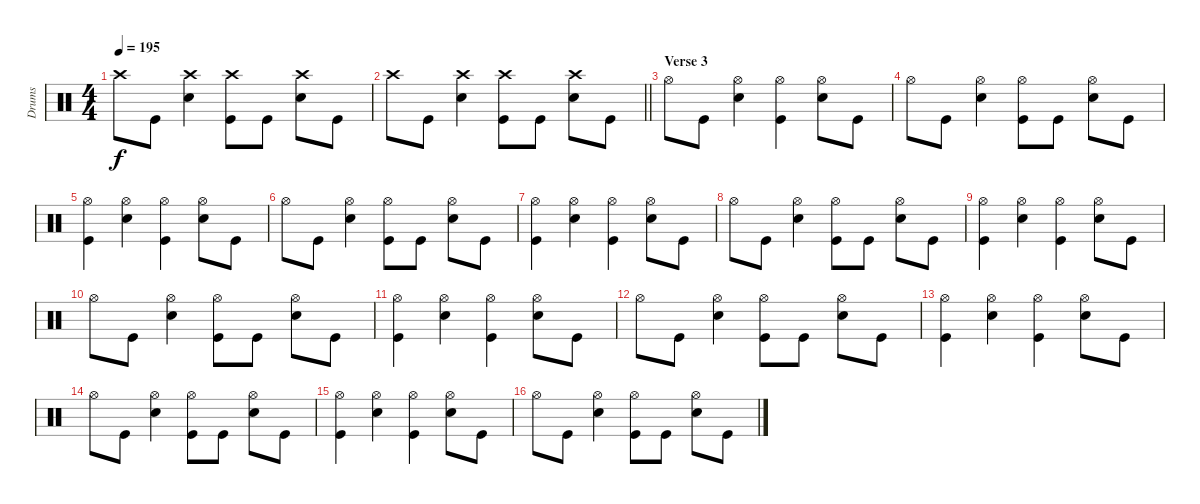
\track ("Drums" "Drums") {instrument percussion}
\staff {score}
\articulation defaults
\ts (4 4)
\tempo 195
\clef neutral
\ks c "Crash high (hit)".8{dy f} "Kick (hit)".8
("Snare (hit) 2" "Crash high (hit)").4 ("Kick (hit)" "Crash high (hit)").8 "Kick (hit)".8 ("Snare (hit) 2" "Crash high (hit)").8 "Kick (hit)".8 |
\barLineRight lightlight "Crash high (hit)".8 "Kick (hit)".8
("Snare (hit) 2" "Crash high (hit)").4 ("Kick (hit)" "Crash high (hit)").8 "Kick (hit)".8 ("Snare (hit) 2" "Crash high (hit)").8 "Kick (hit)".8 |
\section ("" "Verse 3")
"Hi-Hat (open)".8 "Kick (hit)".8 ("Snare (hit) 2" "Hi-Hat (open)").4 ("Kick (hit)" "Hi-Hat (open)").4 ("Snare (hit) 2" "Hi-Hat (open)").8 "Kick (hit)".8 |
"Hi-Hat (open)".8 "Kick (hit)".8 ("Snare (hit) 2" "Hi-Hat (open)").4 ("Kick (hit)" "Hi-Hat (open)").8 "Kick (hit)".8 ("Snare (hit) 2" "Hi-Hat (open)").8 "Kick (hit)".8 |
("Kick (hit)" "Hi-Hat (open)").4 ("Snare (hit) 2" "Hi-Hat (open)").4 ("Kick (hit)" "Hi-Hat (open)").4 ("Snare (hit) 2" "Hi-Hat (open)").8 "Kick (hit)".8 |
"Hi-Hat (open)".8 "Kick (hit)".8 ("Snare (hit) 2" "Hi-Hat (open)").4 ("Kick (hit)" "Hi-Hat (open)").8 "Kick (hit)".8 ("Snare (hit) 2" "Hi-Hat (open)").8 "Kick (hit)".8 |
("Kick (hit)" "Hi-Hat (open)").4 ("Snare (hit) 2" "Hi-Hat (open)").4 ("Kick (hit)" "Hi-Hat (open)").4 ("Snare (hit) 2" "Hi-Hat (open)").8 "Kick (hit)".8 |
"Hi-Hat (open)".8 "Kick (hit)".8 ("Snare (hit) 2" "Hi-Hat (open)").4 ("Kick (hit)" "Hi-Hat (open)").8 "Kick (hit)".8 ("Snare (hit) 2" "Hi-Hat (open)").8 "Kick (hit)".8 |
("Kick (hit)" "Hi-Hat (open)").4 ("Snare (hit) 2" "Hi-Hat (open)").4 ("Kick (hit)" "Hi-Hat (open)").4 ("Snare (hit) 2" "Hi-Hat (open)").8 "Kick (hit)".8 |
"Hi-Hat (open)".8 "Kick (hit)".8 ("Snare (hit) 2" "Hi-Hat (open)").4 ("Kick (hit)" "Hi-Hat (open)").8 "Kick (hit)".8 ("Snare (hit) 2" "Hi-Hat (open)").8 "Kick (hit)".8 |
("Kick (hit)" "Hi-Hat (open)").4 ("Snare (hit) 2" "Hi-Hat (open)").4 ("Kick (hit)" "Hi-Hat (open)").4 ("Snare (hit) 2" "Hi-Hat (open)").8 "Kick (hit)".8 |
"Hi-Hat (open)".8 "Kick (hit)".8 ("Snare (hit) 2" "Hi-Hat (open)").4 ("Kick (hit)" "Hi-Hat (open)").8 "Kick (hit)".8 ("Snare (hit) 2" "Hi-Hat (open)").8 "Kick (hit)".8 |
("Kick (hit)" "Hi-Hat (open)").4 ("Snare (hit) 2" "Hi-Hat (open)").4 ("Kick (hit)" "Hi-Hat (open)").4 ("Snare (hit) 2" "Hi-Hat (open)").8 "Kick (hit)".8 |
"Hi-Hat (open)".8 "Kick (hit)".8 ("Snare (hit) 2" "Hi-Hat (open)").4 ("Kick (hit)" "Hi-Hat (open)").8 "Kick (hit)".8 ("Snare (hit) 2" "Hi-Hat (open)").8 "Kick (hit)".8 |
("Kick (hit)" "Hi-Hat (open)").4 ("Snare (hit) 2" "Hi-Hat (open)").4 ("Kick (hit)" "Hi-Hat (open)").4 ("Snare (hit) 2" "Hi-Hat (open)").8 "Kick (hit)".8 |
"Hi-Hat (open)".8 "Kick (hit)".8 ("Snare (hit) 2" "Hi-Hat (open)").4 ("Kick (hit)" "Hi-Hat (open)").8 "Kick (hit)".8 ("Snare (hit) 2" "Hi-Hat (open)").8 "Kick (hit)".8
